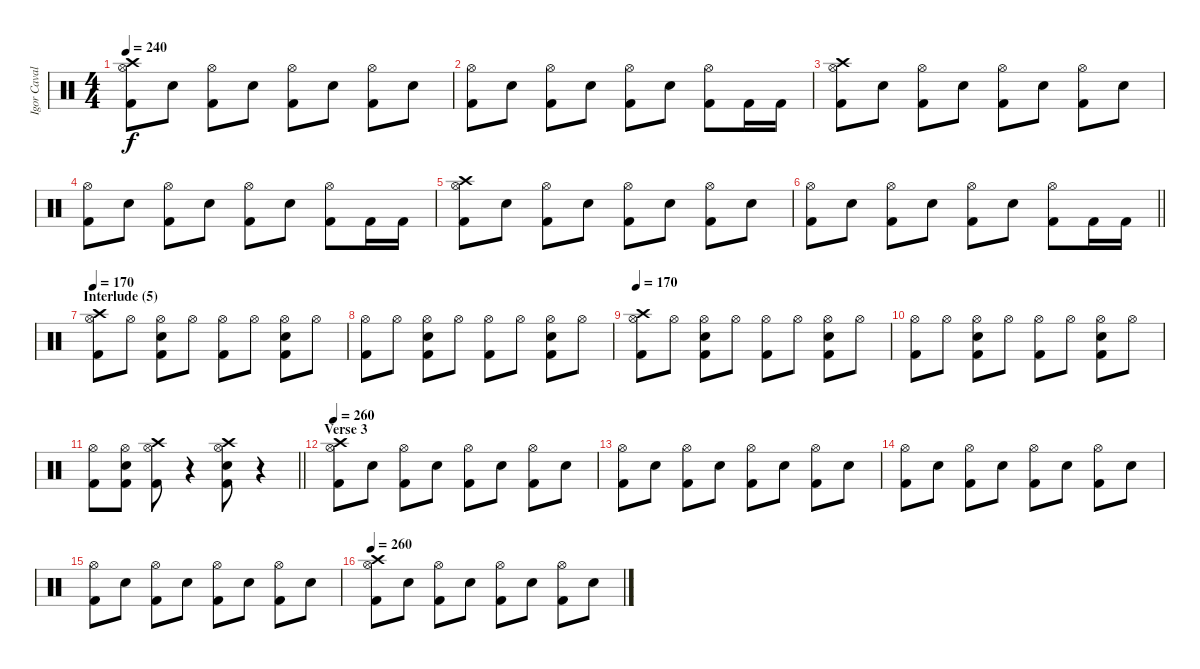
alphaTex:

\track ("Igor Cavalera" "Igor Caval") {instrument percussion}
\staff {score}
\articulation defaults
\ts (4 4)
\tempo 240
\clef neutral
\ks c
("Crash high (hit)" "Hi-Hat (open)" "Kick (hit) 2").8{dy f} "Electric Snare (hit)".8 ("Hi-Hat (open)" "Kick (hit) 2").8 "Electric Snare (hit)".8 ("Hi-Hat (open)" "Kick (hit) 2").8 "Electric Snare (hit)".8 ("Hi-Hat (open)" "Kick (hit) 2").8 "Electric Snare (hit)".8 |
("Hi-Hat (open)" "Kick (hit) 2").8 "Electric Snare (hit)".8 ("Hi-Hat (open)" "Kick (hit) 2").8 "Electric Snare (hit)".8 ("Hi-Hat (open)" "Kick (hit) 2").8 "Electric Snare (hit)".8 ("Hi-Hat (open)" "Kick (hit) 2").8 "Kick (hit) 2".16 "Kick (hit) 2".16 |
("Crash high (hit)" "Hi-Hat (open)" "Kick (hit) 2").8 "Electric Snare (hit)".8 ("Hi-Hat (open)" "Kick (hit) 2").8 "Electric Snare (hit)".8 ("Hi-Hat (open)" "Kick (hit) 2").8 "Electric Snare (hit)".8 ("Hi-Hat (open)" "Kick (hit) 2").8 "Electric Snare (hit)".8 |
("Hi-Hat (open)" "Kick (hit) 2").8 "Electric Snare (hit)".8 ("Hi-Hat (open)" "Kick (hit) 2").8 "Electric Snare (hit)".8 ("Hi-Hat (open)" "Kick (hit) 2").8 "Electric Snare (hit)".8 ("Hi-Hat (open)" "Kick (hit) 2").8 "Kick (hit) 2".16 "Kick (hit) 2".16 |
("Crash high (hit)" "Hi-Hat (open)" "Kick (hit) 2").8 "Electric Snare (hit)".8 ("Hi-Hat (open)" "Kick (hit) 2").8 "Electric Snare (hit)".8 ("Hi-Hat (open)" "Kick (hit) 2").8 "Electric Snare (hit)".8 ("Hi-Hat (open)" "Kick (hit) 2").8 "Electric Snare (hit)".8 |
\barLineRight lightlight
("Hi-Hat (open)" "Kick (hit) 2").8 "Electric Snare (hit)".8 ("Hi-Hat (open)" "Kick (hit) 2").8 "Electric Snare (hit)".8 ("Hi-Hat (open)" "Kick (hit) 2").8 "Electric Snare (hit)".8 ("Hi-Hat (open)" "Kick (hit) 2").8 "Kick (hit) 2".16 "Kick (hit) 2".16 |
\section ("" "Interlude (5)")
\tempo 170
("Crash high (hit)" "Hi-Hat (open)" "Kick (hit) 2").8 "Hi-Hat (open)".8 ("Hi-Hat (open)" "Electric Snare (hit)" "Kick (hit) 2").8 "Hi-Hat (open)".8 ("Hi-Hat (open)" "Kick (hit) 2").8 "Hi-Hat (open)".8 ("Hi-Hat (open)" "Electric Snare (hit)" "Kick (hit) 2").8 "Hi-Hat (open)".8 |
("Hi-Hat (open)" "Kick (hit) 2").8 "Hi-Hat (open)".8 ("Hi-Hat (open)" "Electric Snare (hit)" "Kick (hit) 2").8 "Hi-Hat (open)".8 ("Hi-Hat (open)" "Kick (hit) 2").8 "Hi-Hat (open)".8 ("Hi-Hat (open)" "Electric Snare (hit)" "Kick (hit) 2").8 "Hi-Hat (open)".8 |
\tempo 170
("Crash high (hit)" "Hi-Hat (open)" "Kick (hit) 2").8 "Hi-Hat (open)".8 ("Hi-Hat (open)" "Electric Snare (hit)" "Kick (hit) 2").8 "Hi-Hat (open)".8 ("Hi-Hat (open)" "Kick (hit) 2").8 "Hi-Hat (open)".8 ("Hi-Hat (open)" "Electric Snare (hit)" "Kick (hit) 2").8 "Hi-Hat (open)".8 |
("Hi-Hat (open)" "Kick (hit) 2").8 "Hi-Hat (open)".8 ("Hi-Hat (open)" "Electric Snare (hit)" "Kick (hit) 2").8 "Hi-Hat (open)".8 ("Hi-Hat (open)" "Kick (hit) 2").8 "Hi-Hat (open)".8 ("Hi-Hat (open)" "Electric Snare (hit)" "Kick (hit) 2").8 "Hi-Hat (open)".8 |
\barLineRight lightlight
("Hi-Hat (open)" "Kick (hit) 2").8 ("Hi-Hat (open)" "Electric Snare (hit)" "Kick (hit) 2").8 ("Crash high (hit)" "Hi-Hat (open)" "Kick (hit) 2").8 r.4 ("Crash high (hit)" "Hi-Hat (open)" "Electric Snare (hit)" "Kick (hit) 2").8 r.4 |
\section ("" "Verse 3")
\tempo 260
("Crash high (hit)" "Hi-Hat (open)" "Kick (hit) 2").8 "Electric Snare (hit)".8 ("Hi-Hat (open)" "Kick (hit) 2").8 "Electric Snare (hit)".8 ("Hi-Hat (open)" "Kick (hit) 2").8 "Electric Snare (hit)".8 ("Hi-Hat (open)" "Kick (hit) 2").8 "Electric Snare (hit)".8 |
("Hi-Hat (open)" "Kick (hit) 2").8 "Electric Snare (hit)".8 ("Hi-Hat (open)" "Kick (hit) 2").8 "Electric Snare (hit)".8 ("Hi-Hat (open)" "Kick (hit) 2").8 "Electric Snare (hit)".8 ("Hi-Hat (open)" "Kick (hit) 2").8 "Electric Snare (hit)".8 |
("Hi-Hat (open)" "Kick (hit) 2").8 "Electric Snare (hit)".8 ("Hi-Hat (open)" "Kick (hit) 2").8 "Electric Snare (hit)".8 ("Hi-Hat (open)" "Kick (hit) 2").8 "Electric Snare (hit)".8 ("Hi-Hat (open)" "Kick (hit) 2").8 "Electric Snare (hit)".8 |
("Hi-Hat (open)" "Kick (hit) 2").8 "Electric Snare (hit)".8 ("Hi-Hat (open)" "Kick (hit) 2").8 "Electric Snare (hit)".8 ("Hi-Hat (open)" "Kick (hit) 2").8 "Electric Snare (hit)".8 ("Hi-Hat (open)" "Kick (hit) 2").8 "Electric Snare (hit)".8 |
\tempo 260
("Crash high (hit)" "Hi-Hat (open)" "Kick (hit) 2").8 "Electric Snare (hit)".8 ("Hi-Hat (open)" "Kick (hit) 2").8 "Electric Snare (hit)".8 ("Hi-Hat (open)" "Kick (hit) 2").8 "Electric Snare (hit)".8 ("Hi-Hat (open)" "Kick (hit) 2").8 "Electric Snare (hit)".8
